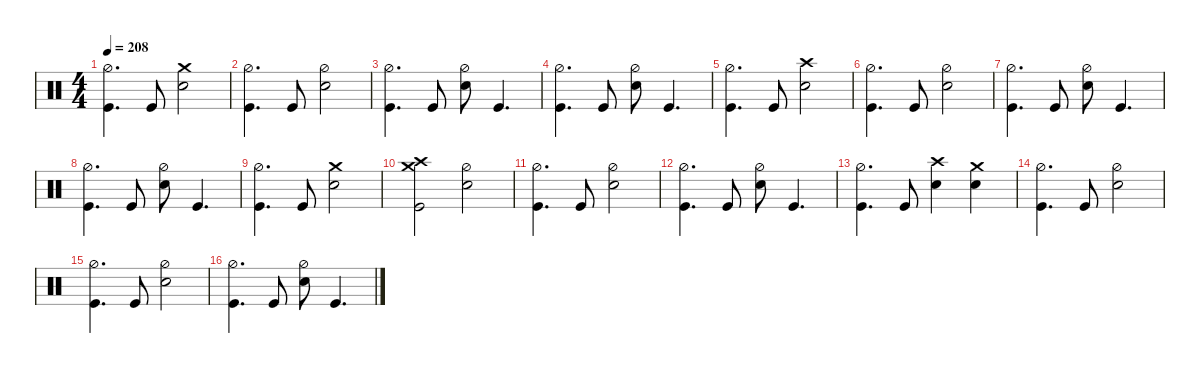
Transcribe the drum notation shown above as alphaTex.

\defaultSystemsLayout 4
\hideDynamics
\bracketExtendMode nobrackets
\singleTrackTrackNamePolicy hidden
\multiTrackTrackNamePolicy hidden
\otherSystemsTrackNameOrientation horizontal
\track ("Drums" "drm.") {multiBarRest instrument percussion}
\staff {score}
\articulation defaults
\ts (4 4)
\tempo 208
\clef neutral
\ks c
("Kick (hit)" "Hi-Hat (half)").4{d dy f beam Down} "Kick (hit)".8{beam Up} ("Snare (hit) 2" "Crash medium (hit)").2{beam Down} |
("Kick (hit)" "Hi-Hat (half)").4{d beam Down} "Kick (hit)".8{beam Up} ("Snare (hit) 2" "Hi-Hat (half)").2{beam Down} |
("Kick (hit)" "Hi-Hat (half)").4{d beam Down} "Kick (hit)".8{beam Up} ("Snare (hit) 2" "Hi-Hat (half)").8{beam Down} "Kick (hit)".4{d beam Up} |
("Kick (hit)" "Hi-Hat (half)").4{d beam Down} "Kick (hit)".8{beam Up} ("Snare (hit) 2" "Hi-Hat (half)").8{beam Down} "Kick (hit)".4{d beam Up} |
("Kick (hit)" "Hi-Hat (half)").4{d beam Down} "Kick (hit)".8{beam Up} ("Snare (hit) 2" "Crash high (hit)").2{beam Down} |
("Kick (hit)" "Hi-Hat (half)").4{d beam Down} "Kick (hit)".8{beam Up} ("Snare (hit) 2" "Hi-Hat (half)").2{beam Down} |
("Kick (hit)" "Hi-Hat (half)").4{d beam Down} "Kick (hit)".8{beam Up} ("Snare (hit) 2" "Hi-Hat (half)").8{beam Down} "Kick (hit)".4{d beam Up} |
("Kick (hit)" "Hi-Hat (half)").4{d beam Down} "Kick (hit)".8{beam Up} ("Snare (hit) 2" "Hi-Hat (half)").8{beam Down} "Kick (hit)".4{d beam Up} |
("Kick (hit)" "Hi-Hat (half)").4{d beam Down} "Kick (hit)".8{beam Up} ("Snare (hit) 2" "Crash medium (hit)").2{beam Down} |
("Crash high (hit)" "Crash medium (hit)" "Kick (hit)").2{beam Down} ("Hi-Hat (half)" "Snare (hit) 2").2{beam Down} |
("Kick (hit)" "Hi-Hat (half)").4{d beam Down} "Kick (hit)".8{beam Up} ("Snare (hit) 2" "Hi-Hat (half)").2{beam Down} |
("Kick (hit)" "Hi-Hat (half)").4{d beam Down} "Kick (hit)".8{beam Up} ("Snare (hit) 2" "Hi-Hat (half)").8{beam Down} "Kick (hit)".4{d beam Up} |
("Kick (hit)" "Hi-Hat (half)").4{d beam Down} "Kick (hit)".8{beam Up} ("Snare (hit) 2" "Crash high (hit)").4{beam Down} ("Snare (hit) 2" "Crash medium (hit)").4{beam Down} |
("Kick (hit)" "Hi-Hat (half)").4{d beam Down} "Kick (hit)".8{beam Up} ("Snare (hit) 2" "Hi-Hat (half)").2{beam Down} |
("Kick (hit)" "Hi-Hat (half)").4{d beam Down} "Kick (hit)".8{beam Up} ("Snare (hit) 2" "Hi-Hat (half)").2{beam Down} |
("Kick (hit)" "Hi-Hat (half)").4{d beam Down} "Kick (hit)".8{beam Up} ("Snare (hit) 2" "Hi-Hat (half)").8{beam Down} "Kick (hit)".4{d beam Up}
